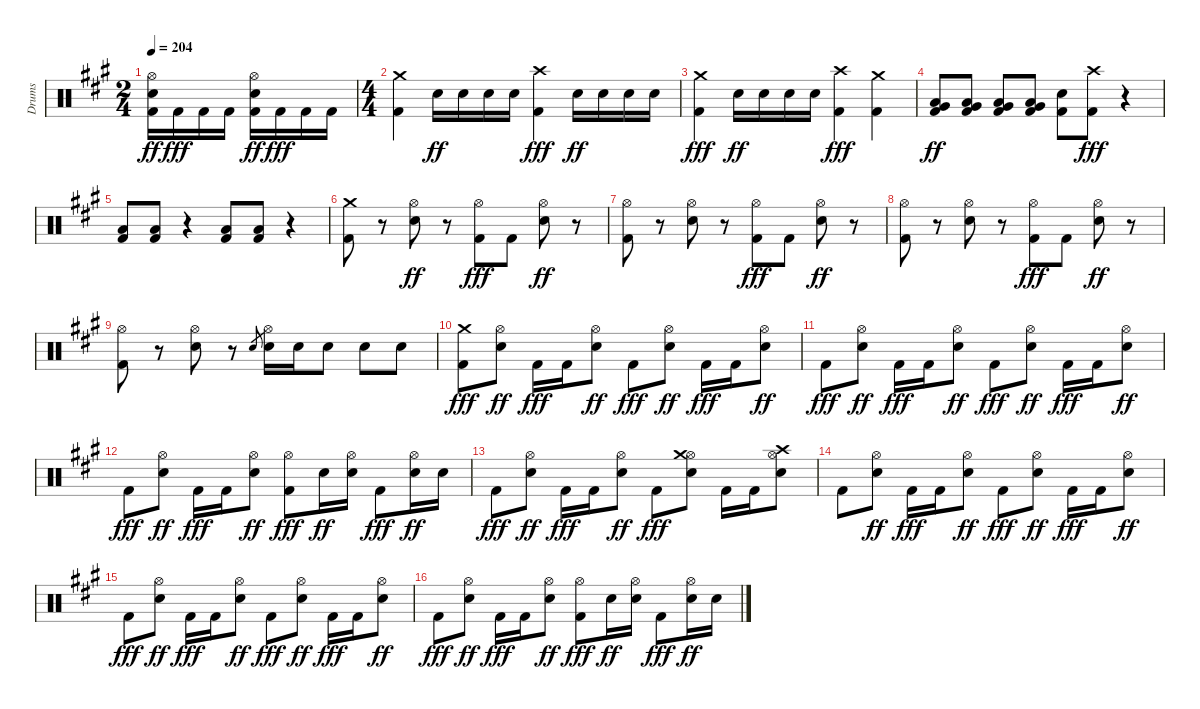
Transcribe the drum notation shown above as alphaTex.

\track ("Drums" "Drums") {instrument percussion}
\staff {score}
\articulation defaults
\ts (2 4)
\tempo 204
\clef neutral
\ks a
("Kick (hit) 2" "Electric Snare (hit)" "Hi-Hat (open)").16{dy ff} "Kick (hit) 2".16{dy fff} "Kick (hit) 2".16 "Kick (hit) 2".16 ("Kick (hit) 2" "Electric Snare (hit)" "Hi-Hat (open)").16{dy ff} "Kick (hit) 2".16{dy fff} "Kick (hit) 2".16 "Kick (hit) 2".16 |
\ts (4 4)
("Kick (hit) 2" "Crash medium (hit)").4 "Electric Snare (hit)".16{dy ff} "Electric Snare (hit)".16 "Electric Snare (hit)".16 "Electric Snare (hit)".16 ("Kick (hit) 2" "Crash high (hit)").4{dy fff} "Electric Snare (hit)".16{dy ff} "Electric Snare (hit)".16 "Electric Snare (hit)".16 "Electric Snare (hit)".16 |
("Kick (hit) 2" "Crash medium (hit)").4{dy fff} "Electric Snare (hit)".16{dy ff} "Electric Snare (hit)".16 "Electric Snare (hit)".16 "Electric Snare (hit)".16 ("Kick (hit) 2" "Crash high (hit)").4{dy fff} ("Kick (hit) 2" "Crash medium (hit)").4 |
("Kick (hit) 2" "Low Tom (hit)" "Very Low Tom (hit)").8{dy ff} ("Kick (hit) 2" "Low Tom (hit)" "Very Low Tom (hit)").8 ("Kick (hit) 2" "Low Tom (hit)" "Very Low Tom (hit)").8 ("Kick (hit) 2" "Low Tom (hit)" "Very Low Tom (hit)").8 ("Kick (hit) 2" "Electric Snare (hit)").8 ("Kick (hit) 2" "Crash high (hit)").8{dy fff} r.4 |
("Kick (hit) 2" "Low Tom (hit)").8 ("Kick (hit) 2" "Low Tom (hit)").8 r.4 ("Kick (hit) 2" "Low Tom (hit)").8 ("Kick (hit) 2" "Low Tom (hit)").8 r.4 |
("Kick (hit) 2" "Crash medium (hit)").8 r.8 ("Electric Snare (hit)" "Hi-Hat (open)").8{dy ff} r.8 ("Kick (hit) 2" "Hi-Hat (open)").8{dy fff} "Kick (hit) 2".8 ("Electric Snare (hit)" "Hi-Hat (open)").8{dy ff} r.8 |
("Kick (hit) 2" "Hi-Hat (open)").8 r.8 ("Electric Snare (hit)" "Hi-Hat (open)").8 r.8 ("Kick (hit) 2" "Hi-Hat (open)").8{dy fff} "Kick (hit) 2".8 ("Electric Snare (hit)" "Hi-Hat (open)").8{dy ff} r.8 |
("Kick (hit) 2" "Hi-Hat (open)").8 r.8 ("Electric Snare (hit)" "Hi-Hat (open)").8 r.8 ("Kick (hit) 2" "Hi-Hat (open)").8{dy fff} "Kick (hit) 2".8 ("Electric Snare (hit)" "Hi-Hat (open)").8{dy ff} r.8 |
("Kick (hit) 2" "Hi-Hat (open)").8 r.8 ("Electric Snare (hit)" "Hi-Hat (open)").8 r.8 "Electric Snare (hit)".8{gr} ("Electric Snare (hit)" "Hi-Hat (open)").16 "Electric Snare (hit)".16 "Electric Snare (hit)".8 "Electric Snare (hit)".8 "Electric Snare (hit)".8 |
("Kick (hit) 2" "Crash medium (hit)").8{dy fff} ("Electric Snare (hit)" "Hi-Hat (open)").8{dy ff} "Kick (hit) 2".16{dy fff} "Kick (hit) 2".16 ("Electric Snare (hit)" "Hi-Hat (open)").8{dy ff} "Kick (hit) 2".8{dy fff} ("Electric Snare (hit)" "Hi-Hat (open)").8{dy ff} "Kick (hit) 2".16{dy fff} "Kick (hit) 2".16 ("Electric Snare (hit)" "Hi-Hat (open)").8{dy ff} |
"Kick (hit) 2".8{dy fff} ("Electric Snare (hit)" "Hi-Hat (open)").8{dy ff} "Kick (hit) 2".16{dy fff} "Kick (hit) 2".16 ("Electric Snare (hit)" "Hi-Hat (open)").8{dy ff} "Kick (hit) 2".8{dy fff} ("Electric Snare (hit)" "Hi-Hat (open)").8{dy ff} "Kick (hit) 2".16{dy fff} "Kick (hit) 2".16 ("Electric Snare (hit)" "Hi-Hat (open)").8{dy ff} |
"Kick (hit) 2".8{dy fff} ("Electric Snare (hit)" "Hi-Hat (open)").8{dy ff} "Kick (hit) 2".16{dy fff} "Kick (hit) 2".16 ("Electric Snare (hit)" "Hi-Hat (open)").8{dy ff} ("Kick (hit) 2" "Hi-Hat (open)").8{dy fff} "Electric Snare (hit)".16{dy ff} ("Electric Snare (hit)" "Hi-Hat (open)").16 "Kick (hit) 2".8{dy fff} ("Electric Snare (hit)" "Hi-Hat (open)").16{dy ff} "Electric Snare (hit)".16 |
"Kick (hit) 2".8{dy fff} ("Electric Snare (hit)" "Hi-Hat (open)").8{dy ff} "Kick (hit) 2".16{dy fff} "Kick (hit) 2".16 ("Electric Snare (hit)" "Hi-Hat (open)").8{dy ff} "Kick (hit) 2".8{dy fff} ("Electric Snare (hit)" "Hi-Hat (open)" "Crash medium (hit)").8 "Kick (hit) 2".16 "Kick (hit) 2".16 ("Electric Snare (hit)" "Hi-Hat (open)" "Crash high (hit)").8 |
"Kick (hit) 2".8 ("Electric Snare (hit)" "Hi-Hat (open)").8{dy ff} "Kick (hit) 2".16{dy fff} "Kick (hit) 2".16 ("Electric Snare (hit)" "Hi-Hat (open)").8{dy ff} "Kick (hit) 2".8{dy fff} ("Electric Snare (hit)" "Hi-Hat (open)").8{dy ff} "Kick (hit) 2".16{dy fff} "Kick (hit) 2".16 ("Electric Snare (hit)" "Hi-Hat (open)").8{dy ff} |
"Kick (hit) 2".8{dy fff} ("Electric Snare (hit)" "Hi-Hat (open)").8{dy ff} "Kick (hit) 2".16{dy fff} "Kick (hit) 2".16 ("Electric Snare (hit)" "Hi-Hat (open)").8{dy ff} "Kick (hit) 2".8{dy fff} ("Electric Snare (hit)" "Hi-Hat (open)").8{dy ff} "Kick (hit) 2".16{dy fff} "Kick (hit) 2".16 ("Electric Snare (hit)" "Hi-Hat (open)").8{dy ff} |
"Kick (hit) 2".8{dy fff} ("Electric Snare (hit)" "Hi-Hat (open)").8{dy ff} "Kick (hit) 2".16{dy fff} "Kick (hit) 2".16 ("Electric Snare (hit)" "Hi-Hat (open)").8{dy ff} ("Kick (hit) 2" "Hi-Hat (open)").8{dy fff} "Electric Snare (hit)".16{dy ff} ("Electric Snare (hit)" "Hi-Hat (open)").16 "Kick (hit) 2".8{dy fff} ("Electric Snare (hit)" "Hi-Hat (open)").16{dy ff} "Electric Snare (hit)".16
